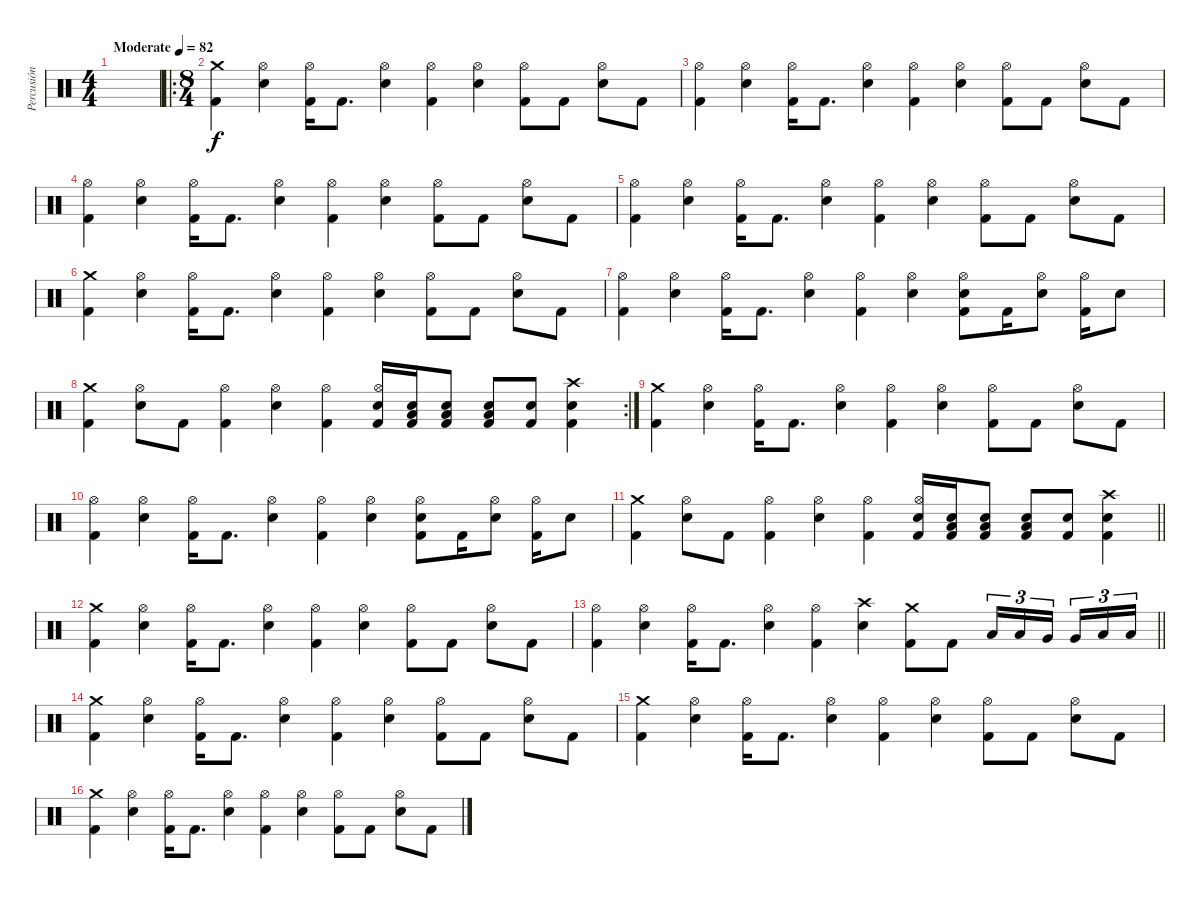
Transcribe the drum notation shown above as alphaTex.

\track ("Percusión" "Percusión") {instrument percussion}
\staff {score}
\articulation defaults
\ts (4 4)
\tempo (82 "Moderate")
\clef neutral
\ks c
|
\ro
\ts (8 4)
("Crash medium (hit)" "Kick (hit) 2").4 ("Hi-Hat (open)" "Electric Snare (hit)").4 ("Hi-Hat (open)" "Kick (hit) 2").16 "Kick (hit) 2".8{d} ("Hi-Hat (open)" "Electric Snare (hit)").4 ("Hi-Hat (open)" "Kick (hit) 2").4 ("Hi-Hat (open)" "Electric Snare (hit)").4 ("Hi-Hat (open)" "Kick (hit) 2").8 "Kick (hit) 2".8 ("Hi-Hat (open)" "Electric Snare (hit)").8 "Kick (hit) 2".8 |
("Hi-Hat (open)" "Kick (hit) 2").4 ("Hi-Hat (open)" "Electric Snare (hit)").4 ("Hi-Hat (open)" "Kick (hit) 2").16 "Kick (hit) 2".8{d} ("Hi-Hat (open)" "Electric Snare (hit)").4 ("Hi-Hat (open)" "Kick (hit) 2").4 ("Hi-Hat (open)" "Electric Snare (hit)").4 ("Hi-Hat (open)" "Kick (hit) 2").8 "Kick (hit) 2".8 ("Hi-Hat (open)" "Electric Snare (hit)").8 "Kick (hit) 2".8 |
("Hi-Hat (open)" "Kick (hit) 2").4 ("Hi-Hat (open)" "Electric Snare (hit)").4 ("Hi-Hat (open)" "Kick (hit) 2").16 "Kick (hit) 2".8{d} ("Hi-Hat (open)" "Electric Snare (hit)").4 ("Hi-Hat (open)" "Kick (hit) 2").4 ("Hi-Hat (open)" "Electric Snare (hit)").4 ("Hi-Hat (open)" "Kick (hit) 2").8 "Kick (hit) 2".8 ("Hi-Hat (open)" "Electric Snare (hit)").8 "Kick (hit) 2".8 |
("Hi-Hat (open)" "Kick (hit) 2").4 ("Hi-Hat (open)" "Electric Snare (hit)").4 ("Hi-Hat (open)" "Kick (hit) 2").16 "Kick (hit) 2".8{d} ("Hi-Hat (open)" "Electric Snare (hit)").4 ("Hi-Hat (open)" "Kick (hit) 2").4 ("Hi-Hat (open)" "Electric Snare (hit)").4 ("Hi-Hat (open)" "Kick (hit) 2").8 "Kick (hit) 2".8 ("Hi-Hat (open)" "Electric Snare (hit)").8 "Kick (hit) 2".8 |
("Crash medium (hit)" "Kick (hit) 2").4 ("Hi-Hat (open)" "Electric Snare (hit)").4 ("Hi-Hat (open)" "Kick (hit) 2").16 "Kick (hit) 2".8{d} ("Hi-Hat (open)" "Electric Snare (hit)").4 ("Hi-Hat (open)" "Kick (hit) 2").4 ("Hi-Hat (open)" "Electric Snare (hit)").4 ("Hi-Hat (open)" "Kick (hit) 2").8 "Kick (hit) 2".8 ("Hi-Hat (open)" "Electric Snare (hit)").8 "Kick (hit) 2".8 |
("Hi-Hat (open)" "Kick (hit) 2").4 ("Hi-Hat (open)" "Electric Snare (hit)").4 ("Hi-Hat (open)" "Kick (hit) 2").16 "Kick (hit) 2".8{d} ("Hi-Hat (open)" "Electric Snare (hit)").4 ("Hi-Hat (open)" "Kick (hit) 2").4 ("Hi-Hat (open)" "Electric Snare (hit)").4 ("Hi-Hat (open)" "Electric Snare (hit)" "Kick (hit) 2").8 "Kick (hit) 2".16 ("Hi-Hat (open)" "Electric Snare (hit)").8 ("Hi-Hat (open)" "Kick (hit) 2").16 "Electric Snare (hit)".8 |
\rc 2
("Crash medium (hit)" "Kick (hit) 2").4 ("Hi-Hat (open)" "Electric Snare (hit)").8 "Kick (hit) 2".8 ("Hi-Hat (open)" "Kick (hit) 2").4 ("Hi-Hat (open)" "Electric Snare (hit)").4 ("Hi-Hat (open)" "Kick (hit) 2").4 ("Hi-Hat (open)" "Electric Snare (hit)" "Kick (hit) 2").16 ("Low Tom (hit)" "Electric Snare (hit)" "Kick (hit) 2").16 ("Low Tom (hit)" "Electric Snare (hit)" "Kick (hit) 2").8 ("Low Floor Tom (hit)" "Electric Snare (hit)" "Kick (hit) 2").8 ("Electric Snare (hit)" "Kick (hit) 2").8 ("Crash high (hit)" "Electric Snare (hit)" "Kick (hit) 2").4 |
("Crash medium (hit)" "Kick (hit) 2").4 ("Hi-Hat (open)" "Electric Snare (hit)").4 ("Hi-Hat (open)" "Kick (hit) 2").16 "Kick (hit) 2".8{d} ("Hi-Hat (open)" "Electric Snare (hit)").4 ("Hi-Hat (open)" "Kick (hit) 2").4 ("Hi-Hat (open)" "Electric Snare (hit)").4 ("Hi-Hat (open)" "Kick (hit) 2").8 "Kick (hit) 2".8 ("Hi-Hat (open)" "Electric Snare (hit)").8 "Kick (hit) 2".8 |
("Hi-Hat (open)" "Kick (hit) 2").4 ("Hi-Hat (open)" "Electric Snare (hit)").4 ("Hi-Hat (open)" "Kick (hit) 2").16 "Kick (hit) 2".8{d} ("Hi-Hat (open)" "Electric Snare (hit)").4 ("Hi-Hat (open)" "Kick (hit) 2").4 ("Hi-Hat (open)" "Electric Snare (hit)").4 ("Hi-Hat (open)" "Electric Snare (hit)" "Kick (hit) 2").8 "Kick (hit) 2".16 ("Hi-Hat (open)" "Electric Snare (hit)").8 ("Hi-Hat (open)" "Kick (hit) 2").16 "Electric Snare (hit)".8 |
\barLineRight lightlight
("Crash medium (hit)" "Kick (hit) 2").4 ("Hi-Hat (open)" "Electric Snare (hit)").8 "Kick (hit) 2".8 ("Hi-Hat (open)" "Kick (hit) 2").4 ("Hi-Hat (open)" "Electric Snare (hit)").4 ("Hi-Hat (open)" "Kick (hit) 2").4 ("Hi-Hat (open)" "Electric Snare (hit)" "Kick (hit) 2").16 ("Low Tom (hit)" "Electric Snare (hit)" "Kick (hit) 2").16 ("Low Tom (hit)" "Electric Snare (hit)" "Kick (hit) 2").8 ("Low Floor Tom (hit)" "Electric Snare (hit)" "Kick (hit) 2").8 ("Electric Snare (hit)" "Kick (hit) 2").8 ("Crash high (hit)" "Electric Snare (hit)" "Kick (hit) 2").4 |
("Crash medium (hit)" "Kick (hit) 2").4 ("Hi-Hat (open)" "Electric Snare (hit)").4 ("Hi-Hat (open)" "Kick (hit) 2").16 "Kick (hit) 2".8{d} ("Hi-Hat (open)" "Electric Snare (hit)").4 ("Hi-Hat (open)" "Kick (hit) 2").4 ("Hi-Hat (open)" "Electric Snare (hit)").4 ("Hi-Hat (open)" "Kick (hit) 2").8 "Kick (hit) 2".8 ("Hi-Hat (open)" "Electric Snare (hit)").8 "Kick (hit) 2".8 |
\barLineRight lightlight
("Hi-Hat (open)" "Kick (hit) 2").4 ("Hi-Hat (open)" "Electric Snare (hit)").4 ("Hi-Hat (open)" "Kick (hit) 2").16 "Kick (hit) 2".8{d} ("Hi-Hat (open)" "Electric Snare (hit)").4 ("Hi-Hat (open)" "Kick (hit) 2").4 ("Crash high (hit)" "Electric Snare (hit)").4 ("Crash medium (hit)" "Kick (hit) 2").8 "Kick (hit) 2".8 "Low Tom (hit)".16{tu (3 2)} "Low Tom (hit)".16{tu (3 2)} "Very Low Tom (hit)".16{tu (3 2) beam splitsecondary} "Very Low Tom (hit)".16{tu (3 2)} "Low Floor Tom (hit)".16{tu (3 2)} "Low Floor Tom (hit)".16{tu (3 2)} |
("Crash medium (hit)" "Kick (hit) 2").4 ("Hi-Hat (open)" "Electric Snare (hit)").4 ("Hi-Hat (open)" "Kick (hit) 2").16 "Kick (hit) 2".8{d} ("Hi-Hat (open)" "Electric Snare (hit)").4 ("Hi-Hat (open)" "Kick (hit) 2").4 ("Hi-Hat (open)" "Electric Snare (hit)").4 ("Hi-Hat (open)" "Kick (hit) 2").8 "Kick (hit) 2".8 ("Hi-Hat (open)" "Electric Snare (hit)").8 "Kick (hit) 2".8 |
("Crash medium (hit)" "Kick (hit) 2").4 ("Hi-Hat (open)" "Electric Snare (hit)").4 ("Hi-Hat (open)" "Kick (hit) 2").16 "Kick (hit) 2".8{d} ("Hi-Hat (open)" "Electric Snare (hit)").4 ("Hi-Hat (open)" "Kick (hit) 2").4 ("Hi-Hat (open)" "Electric Snare (hit)").4 ("Hi-Hat (open)" "Kick (hit) 2").8 "Kick (hit) 2".8 ("Hi-Hat (open)" "Electric Snare (hit)").8 "Kick (hit) 2".8 |
("Crash medium (hit)" "Kick (hit) 2").4 ("Hi-Hat (open)" "Electric Snare (hit)").4 ("Hi-Hat (open)" "Kick (hit) 2").16 "Kick (hit) 2".8{d} ("Hi-Hat (open)" "Electric Snare (hit)").4 ("Hi-Hat (open)" "Kick (hit) 2").4 ("Hi-Hat (open)" "Electric Snare (hit)").4 ("Hi-Hat (open)" "Kick (hit) 2").8 "Kick (hit) 2".8 ("Hi-Hat (open)" "Electric Snare (hit)").8 "Kick (hit) 2".8
